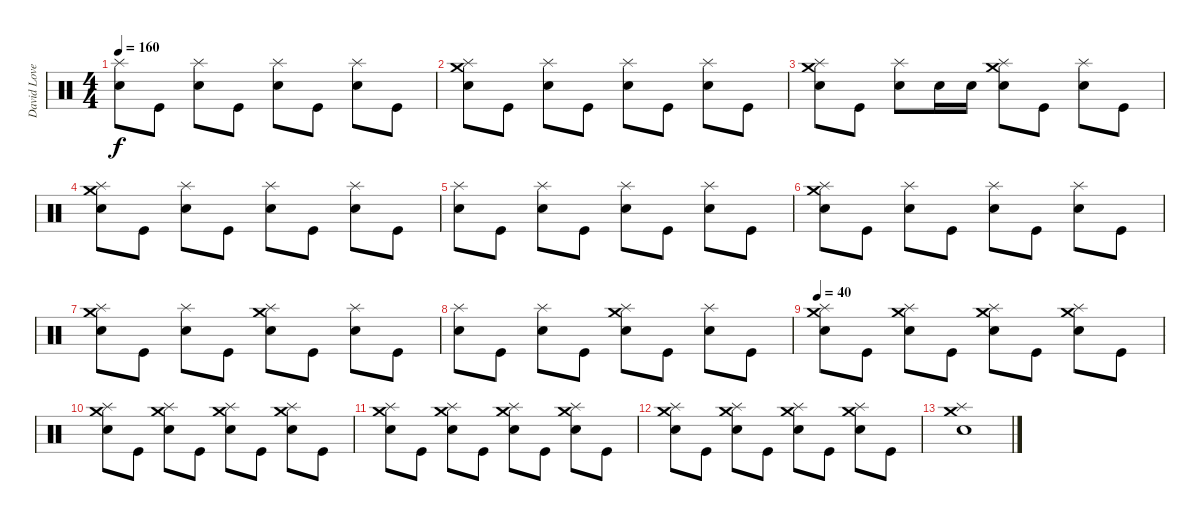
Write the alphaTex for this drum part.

\track ("David Lovering" "David Love") {instrument percussion}
\staff {score}
\articulation defaults
\ts (4 4)
\tempo 160
\clef neutral
\ks c
("Splash (hit)" "Snare (hit) 2").8{dy f} "Kick (hit)".8 ("Splash (hit)" "Snare (hit) 2").8 "Kick (hit)".8 ("Splash (hit)" "Snare (hit) 2").8 "Kick (hit)".8 ("Splash (hit)" "Snare (hit) 2").8 "Kick (hit)".8 |
("Splash (hit)" "Crash medium (hit)" "Snare (hit) 2").8 "Kick (hit)".8 ("Splash (hit)" "Snare (hit) 2").8 "Kick (hit)".8 ("Splash (hit)" "Snare (hit) 2").8 "Kick (hit)".8 ("Splash (hit)" "Snare (hit) 2").8 "Kick (hit)".8 |
("Splash (hit)" "Crash medium (hit)" "Snare (hit) 2").8 "Kick (hit)".8 ("Splash (hit)" "Snare (hit) 2").8 "Snare (hit) 2".16 "Snare (hit) 2".16 ("Splash (hit)" "Crash medium (hit)" "Snare (hit) 2").8 "Kick (hit)".8 ("Splash (hit)" "Snare (hit) 2").8 "Kick (hit)".8 |
("Splash (hit)" "Crash medium (hit)" "Snare (hit) 2").8 "Kick (hit)".8 ("Splash (hit)" "Snare (hit) 2").8 "Kick (hit)".8 ("Splash (hit)" "Snare (hit) 2").8 "Kick (hit)".8 ("Splash (hit)" "Snare (hit) 2").8 "Kick (hit)".8 |
("Splash (hit)" "Snare (hit) 2").8 "Kick (hit)".8 ("Splash (hit)" "Snare (hit) 2").8 "Kick (hit)".8 ("Splash (hit)" "Snare (hit) 2").8 "Kick (hit)".8 ("Splash (hit)" "Snare (hit) 2").8 "Kick (hit)".8 |
("Splash (hit)" "Crash medium (hit)" "Snare (hit) 2").8 "Kick (hit)".8 ("Splash (hit)" "Snare (hit) 2").8 "Kick (hit)".8 ("Splash (hit)" "Snare (hit) 2").8 "Kick (hit)".8 ("Splash (hit)" "Snare (hit) 2").8 "Kick (hit)".8 |
("Splash (hit)" "Crash medium (hit)" "Snare (hit) 2").8 "Kick (hit)".8 ("Splash (hit)" "Snare (hit) 2").8 "Kick (hit)".8 ("Splash (hit)" "Crash medium (hit)" "Snare (hit) 2").8 "Kick (hit)".8 ("Splash (hit)" "Snare (hit) 2").8 "Kick (hit)".8 |
("Splash (hit)" "Snare (hit) 2").8 "Kick (hit)".8 ("Splash (hit)" "Snare (hit) 2").8 "Kick (hit)".8 ("Splash (hit)" "Crash medium (hit)" "Snare (hit) 2").8 "Kick (hit)".8 ("Splash (hit)" "Snare (hit) 2").8 "Kick (hit)".8 |
\tempo 40
("Splash (hit)" "Crash medium (hit)" "Snare (hit) 2").8 "Kick (hit)".8 ("Splash (hit)" "Crash medium (hit)" "Snare (hit) 2").8 "Kick (hit)".8 ("Splash (hit)" "Crash medium (hit)" "Snare (hit) 2").8 "Kick (hit)".8 ("Splash (hit)" "Crash medium (hit)" "Snare (hit) 2").8 "Kick (hit)".8 |
("Splash (hit)" "Crash medium (hit)" "Snare (hit) 2").8 "Kick (hit)".8 ("Splash (hit)" "Crash medium (hit)" "Snare (hit) 2").8 "Kick (hit)".8 ("Splash (hit)" "Crash medium (hit)" "Snare (hit) 2").8 "Kick (hit)".8 ("Splash (hit)" "Crash medium (hit)" "Snare (hit) 2").8 "Kick (hit)".8 |
("Splash (hit)" "Crash medium (hit)" "Snare (hit) 2").8 "Kick (hit)".8 ("Splash (hit)" "Crash medium (hit)" "Snare (hit) 2").8 "Kick (hit)".8 ("Splash (hit)" "Crash medium (hit)" "Snare (hit) 2").8 "Kick (hit)".8 ("Splash (hit)" "Crash medium (hit)" "Snare (hit) 2").8 "Kick (hit)".8 |
("Splash (hit)" "Crash medium (hit)" "Snare (hit) 2").8 "Kick (hit)".8 ("Splash (hit)" "Crash medium (hit)" "Snare (hit) 2").8 "Kick (hit)".8 ("Splash (hit)" "Crash medium (hit)" "Snare (hit) 2").8 "Kick (hit)".8 ("Splash (hit)" "Crash medium (hit)" "Snare (hit) 2").8 "Kick (hit)".8 |
("Splash (hit)" "Crash medium (hit)" "Snare (hit) 2").1
